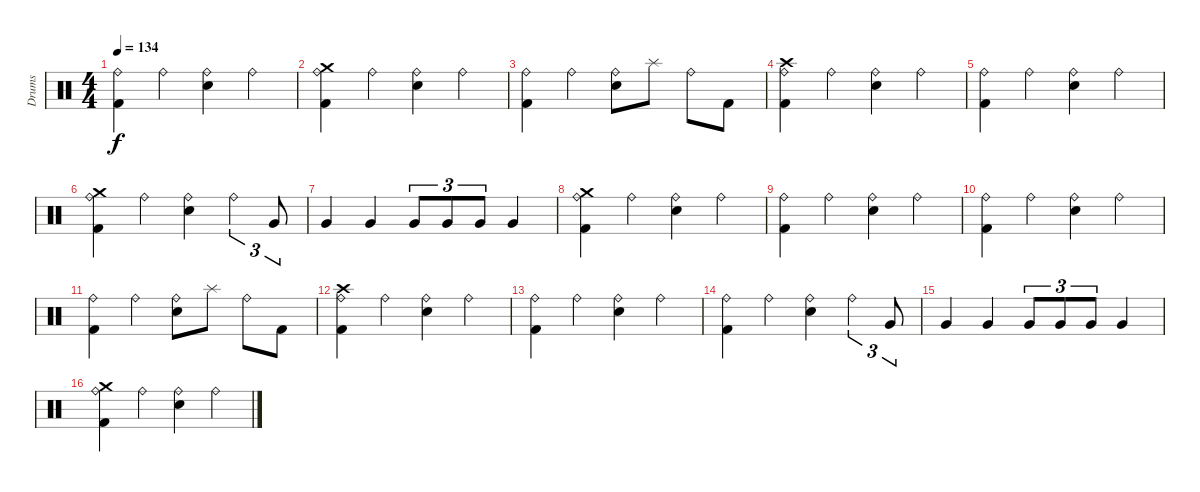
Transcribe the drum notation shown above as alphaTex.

\track ("Drums" "Drums") {instrument percussion}
\staff {score}
\articulation defaults
\ts (4 4)
\tempo 134
\clef neutral
\ks c
("Ride (bell)" "Kick (hit) 2").4{dy f} "Ride (bell)".4 ("Ride (bell)" "Electric Snare (hit)").4 "Ride (bell)".4 |
("Crash medium (hit)" "Ride (bell)" "Kick (hit) 2").4 "Ride (bell)".4 ("Ride (bell)" "Electric Snare (hit)").4 "Ride (bell)".4 |
("Ride (bell)" "Kick (hit) 2").4 "Ride (bell)".4 ("Ride (bell)" "Electric Snare (hit)").8 "Splash (hit)".8 "Ride (bell)".8 "Kick (hit) 2".8 |
("Crash high (hit)" "Ride (bell)" "Kick (hit) 2").4 "Ride (bell)".4 ("Ride (bell)" "Electric Snare (hit)").4 "Ride (bell)".4 |
("Ride (bell)" "Kick (hit) 2").4 "Ride (bell)".4 ("Ride (bell)" "Electric Snare (hit)").4 "Ride (bell)".4 |
("Crash medium (hit)" "Ride (bell)" "Kick (hit) 2").4 "Ride (bell)".4 ("Ride (bell)" "Electric Snare (hit)").4 "Ride (bell)".4{tu (3 2)} "Very Low Tom (hit)".8{tu (3 2)} |
"Very Low Tom (hit)".4 "Very Low Tom (hit)".4 "Very Low Tom (hit)".8{tu (3 2)} "Very Low Tom (hit)".8{tu (3 2)} "Very Low Tom (hit)".8{tu (3 2)} "Very Low Tom (hit)".4 |
("Crash medium (hit)" "Ride (bell)" "Kick (hit) 2").4 "Ride (bell)".4 ("Ride (bell)" "Electric Snare (hit)").4 "Ride (bell)".4 |
("Ride (bell)" "Kick (hit) 2").4 "Ride (bell)".4 ("Ride (bell)" "Electric Snare (hit)").4 "Ride (bell)".4 |
("Ride (bell)" "Kick (hit) 2").4 "Ride (bell)".4 ("Ride (bell)" "Electric Snare (hit)").4 "Ride (bell)".4 |
("Ride (bell)" "Kick (hit) 2").4 "Ride (bell)".4 ("Ride (bell)" "Electric Snare (hit)").8 "Splash (hit)".8 "Ride (bell)".8 "Kick (hit) 2".8 |
("Crash high (hit)" "Ride (bell)" "Kick (hit) 2").4 "Ride (bell)".4 ("Ride (bell)" "Electric Snare (hit)").4 "Ride (bell)".4 |
("Ride (bell)" "Kick (hit) 2").4 "Ride (bell)".4 ("Ride (bell)" "Electric Snare (hit)").4 "Ride (bell)".4 |
("Ride (bell)" "Kick (hit) 2").4 "Ride (bell)".4 ("Ride (bell)" "Electric Snare (hit)").4 "Ride (bell)".4{tu (3 2)} "Very Low Tom (hit)".8{tu (3 2)} |
"Very Low Tom (hit)".4 "Very Low Tom (hit)".4 "Very Low Tom (hit)".8{tu (3 2)} "Very Low Tom (hit)".8{tu (3 2)} "Very Low Tom (hit)".8{tu (3 2)} "Very Low Tom (hit)".4 |
("Crash medium (hit)" "Ride (bell)" "Kick (hit) 2").4 "Ride (bell)".4 ("Ride (bell)" "Electric Snare (hit)").4 "Ride (bell)".4
